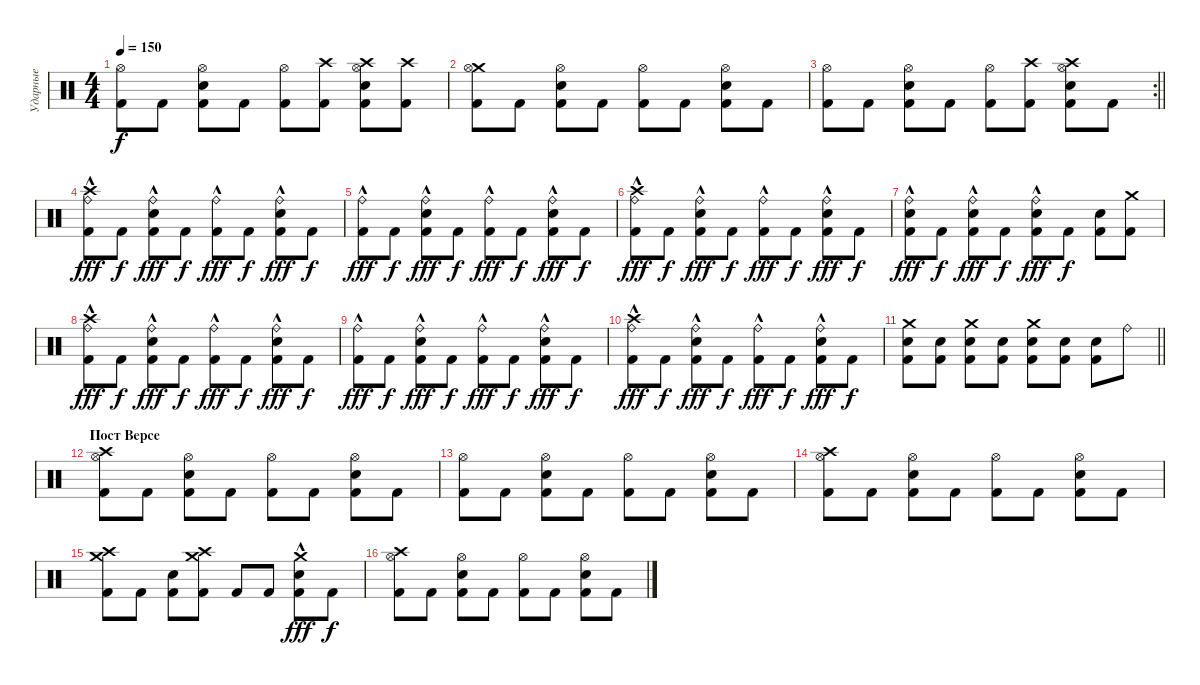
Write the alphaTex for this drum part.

\track ("Ударные" "Ударные") {instrument percussion}
\staff {score}
\articulation defaults
\ts (4 4)
\tempo 150
\clef neutral
\ks c
("Hi-Hat (open)" "Kick (hit) 2").8{dy f} "Kick (hit) 2".8 ("Hi-Hat (open)" "Snare (hit) 2" "Kick (hit) 2").8 "Kick (hit) 2".8 ("Hi-Hat (open)" "Kick (hit) 2").8 ("Crash high (hit)" "Kick (hit) 2").8 ("Crash high (hit)" "Hi-Hat (open)" "Snare (hit) 2" "Kick (hit) 2").8 ("Crash high (hit)" "Kick (hit) 2").8 |
("Crash medium (hit)" "Hi-Hat (open)" "Kick (hit) 2").8 "Kick (hit) 2".8 ("Hi-Hat (open)" "Snare (hit) 2" "Kick (hit) 2").8 "Kick (hit) 2".8 ("Hi-Hat (open)" "Kick (hit) 2").8 "Kick (hit) 2".8 ("Hi-Hat (open)" "Snare (hit) 2" "Kick (hit) 2").8 "Kick (hit) 2".8 |
\rc 2
\barLineRight lightlight
("Hi-Hat (open)" "Kick (hit) 2").8 "Kick (hit) 2".8 ("Hi-Hat (open)" "Snare (hit) 2" "Kick (hit) 2").8 "Kick (hit) 2".8 ("Hi-Hat (open)" "Kick (hit) 2").8 ("Crash high (hit)" "Kick (hit) 2").8 ("Crash high (hit)" "Hi-Hat (open)" "Snare (hit) 2" "Kick (hit) 2").8 "Kick (hit) 2".8 |
("Crash high (hit)" "Ride (bell)"{hac} "Kick (hit) 2").8{dy fff} "Kick (hit) 2".8{dy f} ("Ride (bell)"{hac} "Snare (hit) 2" "Kick (hit) 2").8{dy fff} "Kick (hit) 2".8{dy f} ("Ride (bell)"{hac} "Kick (hit) 2").8{dy fff} "Kick (hit) 2".8{dy f} ("Ride (bell)"{hac} "Snare (hit) 2" "Kick (hit) 2").8{dy fff} "Kick (hit) 2".8{dy f} |
("Ride (bell)"{hac} "Kick (hit) 2").8{dy fff} "Kick (hit) 2".8{dy f} ("Ride (bell)"{hac} "Snare (hit) 2" "Kick (hit) 2").8{dy fff} "Kick (hit) 2".8{dy f} ("Ride (bell)"{hac} "Kick (hit) 2").8{dy fff} "Kick (hit) 2".8{dy f} ("Ride (bell)"{hac} "Snare (hit) 2" "Kick (hit) 2").8{dy fff} "Kick (hit) 2".8{dy f} |
("Crash high (hit)" "Ride (bell)"{hac} "Kick (hit) 2").8{dy fff} "Kick (hit) 2".8{dy f} ("Ride (bell)"{hac} "Snare (hit) 2" "Kick (hit) 2").8{dy fff} "Kick (hit) 2".8{dy f} ("Ride (bell)"{hac} "Kick (hit) 2").8{dy fff} "Kick (hit) 2".8{dy f} ("Ride (bell)"{hac} "Snare (hit) 2" "Kick (hit) 2").8{dy fff} "Kick (hit) 2".8{dy f} |
("Ride (bell)"{hac} "Snare (hit) 2" "Kick (hit) 2").8{dy fff} "Kick (hit) 2".8{dy f} ("Ride (bell)"{hac} "Snare (hit) 2" "Kick (hit) 2").8{dy fff} "Kick (hit) 2".8{dy f} ("Ride (bell)"{hac} "Snare (hit) 2" "Kick (hit) 2").8{dy fff} "Kick (hit) 2".8{dy f} ("Snare (hit) 2" "Kick (hit) 2").8 ("Crash medium (hit)" "Kick (hit) 2").8 |
("Crash high (hit)" "Ride (bell)"{hac} "Kick (hit) 2").8{dy fff} "Kick (hit) 2".8{dy f} ("Ride (bell)"{hac} "Snare (hit) 2" "Kick (hit) 2").8{dy fff} "Kick (hit) 2".8{dy f} ("Ride (bell)"{hac} "Kick (hit) 2").8{dy fff} "Kick (hit) 2".8{dy f} ("Ride (bell)"{hac} "Snare (hit) 2" "Kick (hit) 2").8{dy fff} "Kick (hit) 2".8{dy f} |
("Ride (bell)"{hac} "Kick (hit) 2").8{dy fff} "Kick (hit) 2".8{dy f} ("Ride (bell)"{hac} "Snare (hit) 2" "Kick (hit) 2").8{dy fff} "Kick (hit) 2".8{dy f} ("Ride (bell)"{hac} "Kick (hit) 2").8{dy fff} "Kick (hit) 2".8{dy f} ("Ride (bell)"{hac} "Snare (hit) 2" "Kick (hit) 2").8{dy fff} "Kick (hit) 2".8{dy f} |
("Crash high (hit)" "Ride (bell)"{hac} "Kick (hit) 2").8{dy fff} "Kick (hit) 2".8{dy f} ("Ride (bell)"{hac} "Snare (hit) 2" "Kick (hit) 2").8{dy fff} "Kick (hit) 2".8{dy f} ("Ride (bell)"{hac} "Kick (hit) 2").8{dy fff} "Kick (hit) 2".8{dy f} ("Ride (bell)"{hac} "Snare (hit) 2" "Kick (hit) 2").8{dy fff} "Kick (hit) 2".8{dy f} |
\barLineRight lightlight
("Crash medium (hit)" "Snare (hit) 2" "Kick (hit) 2").8 ("Snare (hit) 2" "Kick (hit) 2").8 ("Crash medium (hit)" "Snare (hit) 2" "Kick (hit) 2").8 ("Snare (hit) 2" "Kick (hit) 2").8 ("Crash medium (hit)" "Snare (hit) 2" "Kick (hit) 2").8 ("Snare (hit) 2" "Kick (hit) 2").8 ("Snare (hit) 2" "Kick (hit) 2").8 "Ride (bell)".8 |
\section ("" "Пост Версе")
("Crash high (hit)" "Hi-Hat (open)" "Kick (hit) 2").8 "Kick (hit) 2".8 ("Hi-Hat (open)" "Snare (hit) 2" "Kick (hit) 2").8 "Kick (hit) 2".8 ("Hi-Hat (open)" "Kick (hit) 2").8 "Kick (hit) 2".8 ("Hi-Hat (open)" "Snare (hit) 2" "Kick (hit) 2").8 "Kick (hit) 2".8 |
("Hi-Hat (open)" "Kick (hit) 2").8 "Kick (hit) 2".8 ("Hi-Hat (open)" "Snare (hit) 2" "Kick (hit) 2").8 "Kick (hit) 2".8 ("Hi-Hat (open)" "Kick (hit) 2").8 "Kick (hit) 2".8 ("Hi-Hat (open)" "Snare (hit) 2" "Kick (hit) 2").8 "Kick (hit) 2".8 |
("Crash high (hit)" "Hi-Hat (open)" "Kick (hit) 2").8 "Kick (hit) 2".8 ("Hi-Hat (open)" "Snare (hit) 2" "Kick (hit) 2").8 "Kick (hit) 2".8 ("Hi-Hat (open)" "Kick (hit) 2").8 "Kick (hit) 2".8 ("Hi-Hat (open)" "Snare (hit) 2" "Kick (hit) 2").8 "Kick (hit) 2".8 |
("Crash high (hit)" "Crash medium (hit)" "Kick (hit) 2").8 "Kick (hit) 2".8 ("Snare (hit) 2" "Kick (hit) 2").8 ("Crash high (hit)" "Crash medium (hit)" "Kick (hit) 2").8 "Kick (hit) 2".8 "Kick (hit) 2".8 ("Crash medium (hit)"{hac} "Snare (hit) 2" "Kick (hit) 2").8{dy fff} "Kick (hit) 2".8{dy f} |
("Crash high (hit)" "Hi-Hat (open)" "Kick (hit) 2").8 "Kick (hit) 2".8 ("Hi-Hat (open)" "Snare (hit) 2" "Kick (hit) 2").8 "Kick (hit) 2".8 ("Hi-Hat (open)" "Kick (hit) 2").8 "Kick (hit) 2".8 ("Hi-Hat (open)" "Snare (hit) 2" "Kick (hit) 2").8 "Kick (hit) 2".8
